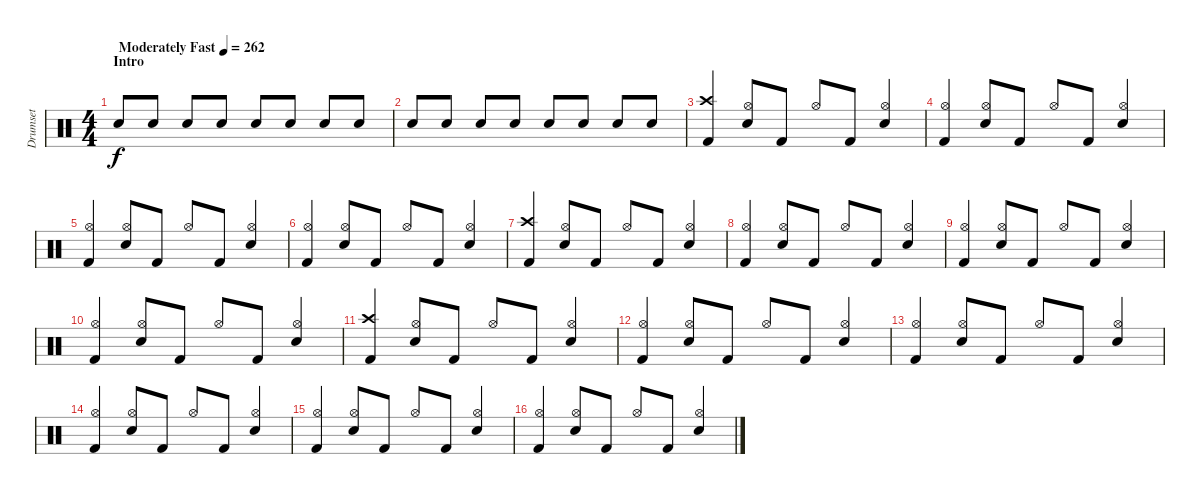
\track ("Drumset" "Drumset") {instrument percussion}
\staff {score}
\articulation defaults
\ts (4 4)
\section ("" "Intro")
\tempo (262 "Moderately Fast")
\clef neutral
\ks c "Snare (hit) 2".8{dy f beam Up} "Snare (hit) 2".8{beam Up} "Snare (hit) 2".8{beam Up} "Snare (hit) 2".8{beam Up} "Snare (hit) 2".8{beam Up} "Snare (hit) 2".8{beam Up} "Snare (hit) 2".8{beam Up} "Snare (hit) 2".8{beam Up}
|
"Snare (hit) 2".8{beam Up} "Snare (hit) 2".8{beam Up} "Snare (hit) 2".8{beam Up} "Snare (hit) 2".8{beam Up} "Snare (hit) 2".8{beam Up} "Snare (hit) 2".8{beam Up} "Snare (hit) 2".8{beam Up} "Snare (hit) 2".8{beam Up} |
("Crash high (hit)" "Kick (hit) 2").4{beam Up} ("Snare (hit) 2" "Hi-Hat (open)").8{beam Up} "Kick (hit) 2".8{beam Up} "Hi-Hat (open)".8{beam Up} "Kick (hit) 2".8{beam Up} ("Hi-Hat (open)" "Snare (hit) 2").4{beam Up} |
("Hi-Hat (open)" "Kick (hit) 2").4{beam Up} ("Snare (hit) 2" "Hi-Hat (open)").8{beam Up} "Kick (hit) 2".8{beam Up} "Hi-Hat (open)".8{beam Up} "Kick (hit) 2".8{beam Up} ("Hi-Hat (open)" "Snare (hit) 2").4{beam Up} |
("Kick (hit) 2" "Hi-Hat (open)").4{beam Up} ("Snare (hit) 2" "Hi-Hat (open)").8{beam Up} "Kick (hit) 2".8{beam Up} "Hi-Hat (open)".8{beam Up} "Kick (hit) 2".8{beam Up} ("Hi-Hat (open)" "Snare (hit) 2").4{beam Up} |
("Hi-Hat (open)" "Kick (hit) 2").4{beam Up} ("Snare (hit) 2" "Hi-Hat (open)").8{beam Up} "Kick (hit) 2".8{beam Up} "Hi-Hat (open)".8{beam Up} "Kick (hit) 2".8{beam Up} ("Hi-Hat (open)" "Snare (hit) 2").4{beam Up} |
("Crash high (hit)" "Kick (hit) 2").4{beam Up} ("Snare (hit) 2" "Hi-Hat (open)").8{beam Up} "Kick (hit) 2".8{beam Up} "Hi-Hat (open)".8{beam Up} "Kick (hit) 2".8{beam Up} ("Hi-Hat (open)" "Snare (hit) 2").4{beam Up} |
("Hi-Hat (open)" "Kick (hit) 2").4{beam Up} ("Snare (hit) 2" "Hi-Hat (open)").8{beam Up} "Kick (hit) 2".8{beam Up} "Hi-Hat (open)".8{beam Up} "Kick (hit) 2".8{beam Up} ("Hi-Hat (open)" "Snare (hit) 2").4{beam Up} |
("Hi-Hat (open)" "Kick (hit) 2").4{beam Up} ("Snare (hit) 2" "Hi-Hat (open)").8{beam Up} "Kick (hit) 2".8{beam Up} "Hi-Hat (open)".8{beam Up} "Kick (hit) 2".8{beam Up} ("Hi-Hat (open)" "Snare (hit) 2").4{beam Up} |
("Hi-Hat (open)" "Kick (hit) 2").4{beam Up} ("Snare (hit) 2" "Hi-Hat (open)").8{beam Up} "Kick (hit) 2".8{beam Up} "Hi-Hat (open)".8{beam Up} "Kick (hit) 2".8{beam Up} ("Hi-Hat (open)" "Snare (hit) 2").4{beam Up} |
("Crash high (hit)" "Kick (hit) 2").4{beam Up} ("Snare (hit) 2" "Hi-Hat (open)").8{beam Up} "Kick (hit) 2".8{beam Up} "Hi-Hat (open)".8{beam Up} "Kick (hit) 2".8{beam Up} ("Hi-Hat (open)" "Snare (hit) 2").4{beam Up} |
("Hi-Hat (open)" "Kick (hit) 2").4{beam Up} ("Snare (hit) 2" "Hi-Hat (open)").8{beam Up} "Kick (hit) 2".8{beam Up} "Hi-Hat (open)".8{beam Up} "Kick (hit) 2".8{beam Up} ("Hi-Hat (open)" "Snare (hit) 2").4{beam Up} |
("Hi-Hat (open)" "Kick (hit) 2").4{beam Up} ("Snare (hit) 2" "Hi-Hat (open)").8{beam Up} "Kick (hit) 2".8{beam Up} "Hi-Hat (open)".8{beam Up} "Kick (hit) 2".8{beam Up} ("Hi-Hat (open)" "Snare (hit) 2").4{beam Up} |
("Hi-Hat (open)" "Kick (hit) 2").4{beam Up} ("Snare (hit) 2" "Hi-Hat (open)").8{beam Up} "Kick (hit) 2".8{beam Up} "Hi-Hat (open)".8{beam Up} "Kick (hit) 2".8{beam Up} ("Hi-Hat (open)" "Snare (hit) 2").4{beam Up} |
("Hi-Hat (open)" "Kick (hit) 2").4{beam Up} ("Snare (hit) 2" "Hi-Hat (open)").8{beam Up} "Kick (hit) 2".8{beam Up} "Hi-Hat (open)".8{beam Up} "Kick (hit) 2".8{beam Up} ("Hi-Hat (open)" "Snare (hit) 2").4{beam Up} |
("Hi-Hat (open)" "Kick (hit) 2").4{beam Up} ("Snare (hit) 2" "Hi-Hat (open)").8{beam Up} "Kick (hit) 2".8{beam Up} "Hi-Hat (open)".8{beam Up} "Kick (hit) 2".8{beam Up} ("Hi-Hat (open)" "Snare (hit) 2").4{beam Up}
